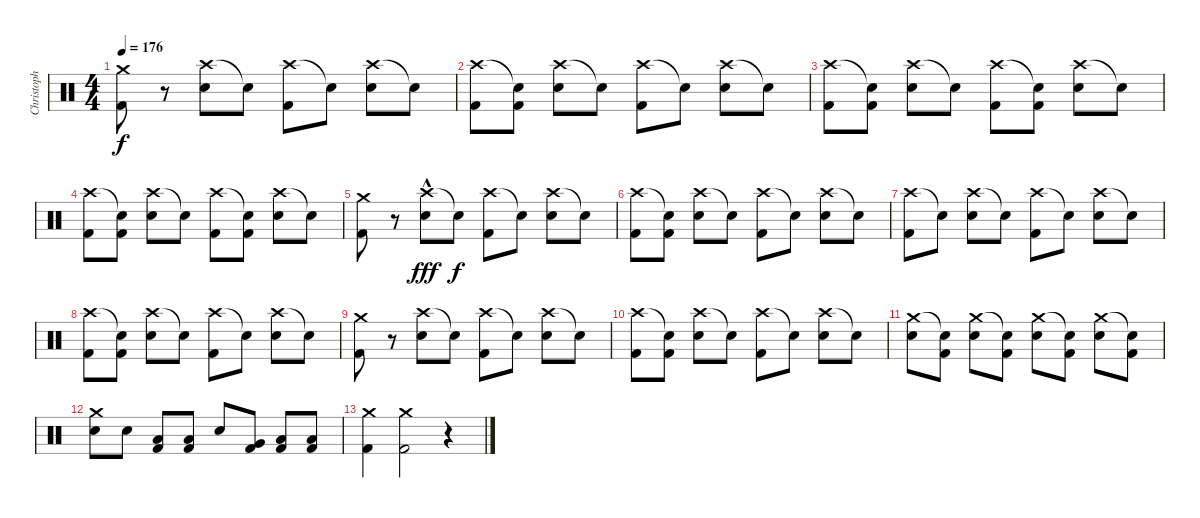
\track ("Christoph" "Christoph") {instrument percussion}
\staff {score}
\articulation defaults
\ts (4 4)
\tempo 176
\clef neutral
\ks c
("Crash medium (hit)" "Kick (hit) 2").8{dy f} r.8 ("Crash high (hit)" "Snare (hit) 2").8 "Snare (hit)"{t}.8 ("Crash high (hit)" "Kick (hit) 2").8 "Snare (hit)"{t}.8 ("Crash high (hit)" "Snare (hit) 2").8 "Snare (hit)"{t}.8 |
("Crash high (hit)" "Kick (hit) 2").8 ("Snare (hit)"{t} "Kick (hit) 2").8 ("Crash high (hit)" "Snare (hit) 2").8 "Snare (hit)"{t}.8 ("Crash high (hit)" "Kick (hit) 2").8 "Snare (hit)"{t}.8 ("Crash high (hit)" "Snare (hit) 2").8 "Snare (hit)"{t}.8 |
("Crash high (hit)" "Kick (hit) 2").8 ("Snare (hit)"{t} "Kick (hit) 2").8 ("Crash high (hit)" "Snare (hit) 2").8 "Snare (hit)"{t}.8 ("Crash high (hit)" "Kick (hit) 2").8 ("Snare (hit)"{t} "Kick (hit) 2").8 ("Crash high (hit)" "Snare (hit) 2").8 "Snare (hit)"{t}.8 |
("Crash high (hit)" "Kick (hit) 2").8 ("Snare (hit)"{t} "Kick (hit) 2").8 ("Crash high (hit)" "Snare (hit) 2").8 "Snare (hit)"{t}.8 ("Crash high (hit)" "Kick (hit) 2").8 ("Snare (hit)"{t} "Kick (hit) 2").8 ("Crash high (hit)" "Snare (hit) 2").8 "Snare (hit)"{t}.8 |
("Crash medium (hit)" "Kick (hit) 2").8 r.8 ("Crash high (hit)"{hac} "Snare (hit) 2").8{dy fff} "Snare (hit)"{t}.8{dy f} ("Crash high (hit)" "Kick (hit) 2").8 "Snare (hit)"{t}.8 ("Crash high (hit)" "Snare (hit) 2").8 "Snare (hit)"{t}.8 |
("Crash high (hit)" "Kick (hit) 2").8 ("Snare (hit)"{t} "Kick (hit) 2").8 ("Crash high (hit)" "Snare (hit) 2").8 "Snare (hit)"{t}.8 ("Crash high (hit)" "Kick (hit) 2").8 "Snare (hit)"{t}.8 ("Crash high (hit)" "Snare (hit) 2").8 "Snare (hit)"{t}.8 |
("Crash high (hit)" "Kick (hit) 2").8 "Snare (hit)"{t}.8 ("Crash high (hit)" "Snare (hit) 2").8 "Snare (hit)"{t}.8 ("Crash high (hit)" "Kick (hit) 2").8 "Snare (hit)"{t}.8 ("Crash high (hit)" "Snare (hit) 2").8 "Snare (hit)"{t}.8 |
("Crash high (hit)" "Kick (hit) 2").8 ("Snare (hit)"{t} "Kick (hit) 2").8 ("Crash high (hit)" "Snare (hit) 2").8 "Snare (hit)"{t}.8 ("Crash high (hit)" "Kick (hit) 2").8 "Snare (hit)"{t}.8 ("Crash high (hit)" "Snare (hit) 2").8 "Snare (hit)"{t}.8 |
("Crash medium (hit)" "Kick (hit) 2").8 r.8 ("Crash high (hit)" "Snare (hit) 2").8 "Snare (hit)"{t}.8 ("Crash high (hit)" "Kick (hit) 2").8 "Snare (hit)"{t}.8 ("Crash high (hit)" "Snare (hit) 2").8 "Snare (hit)"{t}.8 |
("Crash high (hit)" "Kick (hit) 2").8 ("Snare (hit)"{t} "Kick (hit) 2").8 ("Crash high (hit)" "Snare (hit) 2").8 "Snare (hit)"{t}.8 ("Crash high (hit)" "Kick (hit) 2").8 "Snare (hit)"{t}.8 ("Crash high (hit)" "Snare (hit) 2").8 "Snare (hit)"{t}.8 |
("Crash medium (hit)" "Snare (hit) 2").8 ("Snare (hit)"{t} "Kick (hit) 2").8 ("Crash medium (hit)" "Snare (hit) 2").8 ("Snare (hit)"{t} "Kick (hit) 2").8 ("Crash medium (hit)" "Snare (hit) 2").8 ("Snare (hit)"{t} "Kick (hit) 2").8 ("Crash medium (hit)" "Snare (hit) 2").8 ("Snare (hit)"{t} "Kick (hit) 2").8 |
("Crash medium (hit)" "Snare (hit) 2").8 "Snare (hit) 2".8 ("Low Tom (hit)" "Kick (hit) 2").8 ("Low Tom (hit)" "Kick (hit) 2").8 "Snare (hit) 2".8 ("Very Low Tom (hit)" "Kick (hit) 2").8 ("Low Floor Tom (hit)" "Kick (hit) 2").8 ("Low Floor Tom (hit)" "Kick (hit) 2").8 |
("Crash medium (hit)" "Kick (hit) 2").4 ("Crash medium (hit)" "Kick (hit) 2").2 r.4
